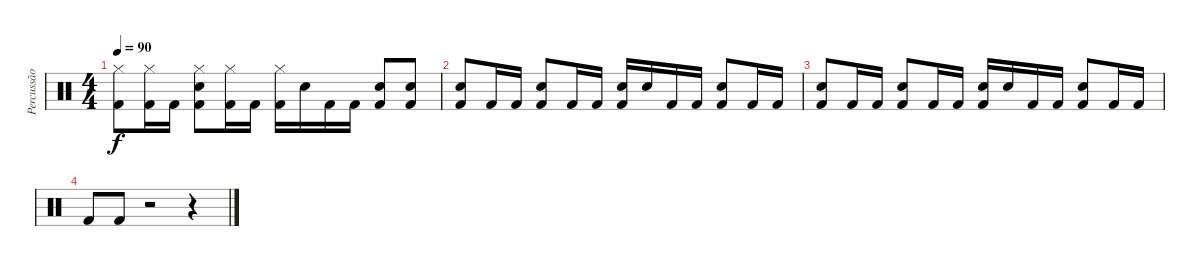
\track ("Percussão" "Percussão") {instrument percussion}
\staff {score}
\articulation defaults
\ts (4 4)
\tempo 90
\clef neutral
\ks c
("Kick (hit) 2" "Hi-Hat (closed)").8{dy f} ("Kick (hit) 2" "Hi-Hat (closed)").16 "Kick (hit) 2".16 ("Kick (hit) 2" "Snare (hit) 2" "Hi-Hat (closed)").8 ("Kick (hit) 2" "Hi-Hat (closed)").16 "Kick (hit) 2".16 ("Kick (hit) 2" "Hi-Hat (closed)").16 "Snare (hit) 2".16 "Kick (hit) 2".16 "Kick (hit) 2".16 ("Kick (hit) 2" "Snare (hit) 2").8 ("Kick (hit) 2" "Snare (hit) 2").8 |
("Kick (hit) 2" "Snare (hit) 2").8 "Kick (hit) 2".16 "Kick (hit) 2".16 ("Kick (hit) 2" "Snare (hit) 2").8 "Kick (hit) 2".16 "Kick (hit) 2".16 ("Kick (hit) 2" "Snare (hit) 2").16 "Snare (hit) 2".16 "Kick (hit) 2".16 "Kick (hit) 2".16 ("Kick (hit) 2" "Snare (hit) 2").8 "Kick (hit) 2".16 "Kick (hit) 2".16 |
("Kick (hit) 2" "Snare (hit) 2").8 "Kick (hit) 2".16 "Kick (hit) 2".16 ("Kick (hit) 2" "Snare (hit) 2").8 "Kick (hit) 2".16 "Kick (hit) 2".16 ("Kick (hit) 2" "Snare (hit) 2").16 "Snare (hit) 2".16 "Kick (hit) 2".16 "Kick (hit) 2".16 ("Kick (hit) 2" "Snare (hit) 2").8 "Kick (hit) 2".16 "Kick (hit) 2".16 |
"Kick (hit) 2".8 "Kick (hit) 2".8 r.2 r.4
